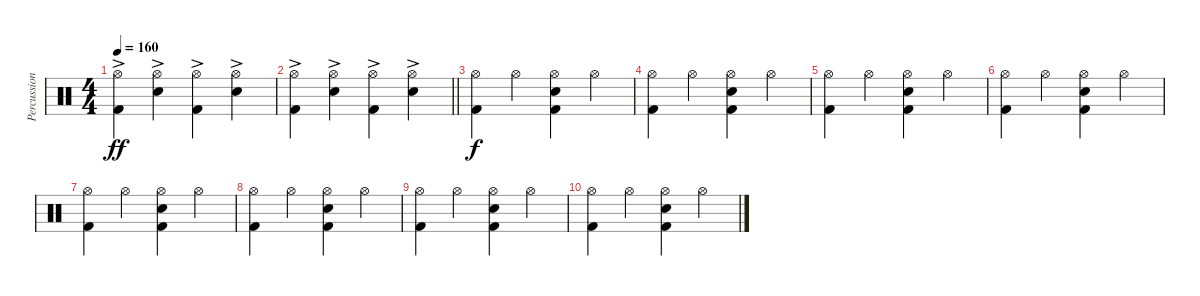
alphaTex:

\track ("Percussion" "Percussion") {instrument percussion}
\staff {score}
\articulation defaults
\ts (4 4)
\tempo 160
\clef neutral
\ks c
("Hi-Hat (open)"{ac} "Kick (hit) 2").4{dy ff} ("Hi-Hat (open)"{ac} "Snare (hit) 2").4 ("Hi-Hat (open)"{ac} "Kick (hit) 2").4 ("Hi-Hat (open)"{ac} "Snare (hit) 2").4 |
\barLineRight lightlight
("Hi-Hat (open)"{ac} "Kick (hit) 2").4 ("Hi-Hat (open)"{ac} "Snare (hit) 2").4 ("Hi-Hat (open)"{ac} "Kick (hit) 2").4 ("Hi-Hat (open)"{ac} "Snare (hit) 2").4 |
("Hi-Hat (open)" "Kick (hit) 2").4{dy f} "Hi-Hat (open)".4 ("Hi-Hat (open)" "Snare (hit) 2" "Kick (hit) 2").4 "Hi-Hat (open)".4 |
("Hi-Hat (open)" "Kick (hit) 2").4 "Hi-Hat (open)".4 ("Hi-Hat (open)" "Snare (hit) 2" "Kick (hit) 2").4 "Hi-Hat (open)".4 |
("Hi-Hat (open)" "Kick (hit) 2").4 "Hi-Hat (open)".4 ("Hi-Hat (open)" "Snare (hit) 2" "Kick (hit) 2").4 "Hi-Hat (open)".4 |
("Hi-Hat (open)" "Kick (hit) 2").4 "Hi-Hat (open)".4 ("Hi-Hat (open)" "Snare (hit) 2" "Kick (hit) 2").4 "Hi-Hat (open)".4 |
("Hi-Hat (open)" "Kick (hit) 2").4 "Hi-Hat (open)".4 ("Hi-Hat (open)" "Snare (hit) 2" "Kick (hit) 2").4 "Hi-Hat (open)".4 |
("Hi-Hat (open)" "Kick (hit) 2").4 "Hi-Hat (open)".4 ("Hi-Hat (open)" "Snare (hit) 2" "Kick (hit) 2").4 "Hi-Hat (open)".4 |
("Hi-Hat (open)" "Kick (hit) 2").4 "Hi-Hat (open)".4 ("Hi-Hat (open)" "Snare (hit) 2" "Kick (hit) 2").4 "Hi-Hat (open)".4 |
("Hi-Hat (open)" "Kick (hit) 2").4 "Hi-Hat (open)".4 ("Hi-Hat (open)" "Snare (hit) 2" "Kick (hit) 2").4 "Hi-Hat (open)".4
